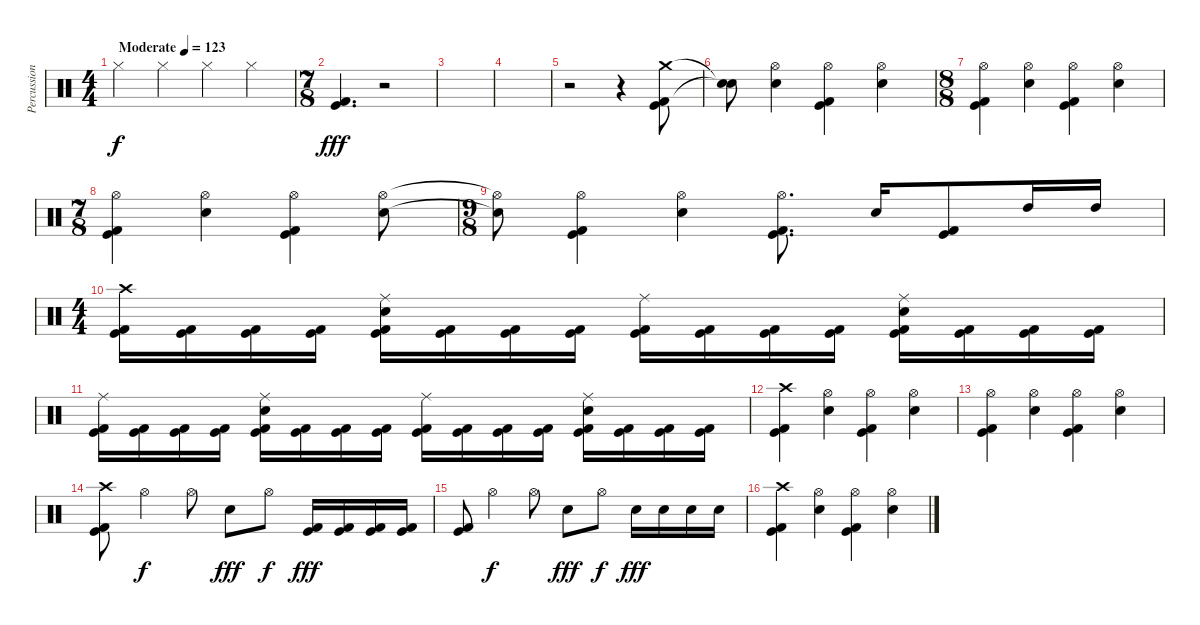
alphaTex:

\track ("Percussion" "Percussion") {instrument percussion}
\staff {score}
\articulation defaults
\ts (4 4)
\tempo (123 "Moderate")
\clef neutral
\ks c "Hi-Hat (closed)".4{dy f} "Hi-Hat (closed)".4 "Hi-Hat (closed)".4 "Hi-Hat (closed)".4
|
\ts (7 8)
("Kick (hit)" "Kick (hit) 2").4{d dy fff} r.2 |
|
|
r.2 r.4 ("Crash medium (hit)" "Kick (hit) 2" "Kick (hit)").8 |
("Snare (hit)"{t} "Snare (hit)"{t}).8 ("Hi-Hat (open)" "Electric Snare (hit)").4 ("Hi-Hat (open)" "Kick (hit) 2" "Kick (hit)").4 ("Hi-Hat (open)" "Electric Snare (hit)").4 |
\ts (8 8)
("Hi-Hat (open)" "Kick (hit) 2" "Kick (hit)").4 ("Hi-Hat (open)" "Electric Snare (hit)").4 ("Hi-Hat (open)" "Kick (hit) 2" "Kick (hit)").4 ("Hi-Hat (open)" "Electric Snare (hit)").4 |
\ts (7 8)
("Hi-Hat (open)" "Kick (hit) 2" "Kick (hit)").4 ("Hi-Hat (open)" "Electric Snare (hit)").4 ("Hi-Hat (open)" "Kick (hit) 2" "Kick (hit)").4 ("Hi-Hat (open)" "Electric Snare (hit)").8 |
\ts (9 8)
("Hi-Hat (open)"{t} "Electric Snare (hit)"{t}).8 ("Hi-Hat (open)" "Kick (hit) 2" "Kick (hit)").4 ("Hi-Hat (open)" "Electric Snare (hit)").4 ("Hi-Hat (open)" "Kick (hit) 2" "Kick (hit)").8{d} "Electric Snare (hit)".16 ("Kick (hit)" "Kick (hit) 2").8 "High Tom (hit)".16 "High Tom (hit)".16 |
\ts (4 4)
("Crash high (hit)" "Kick (hit) 2" "Kick (hit)").16 ("Kick (hit) 2" "Kick (hit)").16 ("Kick (hit) 2" "Kick (hit)").16 ("Kick (hit) 2" "Kick (hit)").16 ("Ride (middle)" "Electric Snare (hit)" "Kick (hit) 2" "Kick (hit)").16 ("Kick (hit) 2" "Kick (hit)").16 ("Kick (hit) 2" "Kick (hit)").16 ("Kick (hit) 2" "Kick (hit)").16 ("Ride (middle)" "Kick (hit) 2" "Kick (hit)").16 ("Kick (hit) 2" "Kick (hit)").16 ("Kick (hit) 2" "Kick (hit)").16 ("Kick (hit) 2" "Kick (hit)").16 ("Ride (middle)" "Electric Snare (hit)" "Kick (hit) 2" "Kick (hit)").16 ("Kick (hit) 2" "Kick (hit)").16 ("Kick (hit) 2" "Kick (hit)").16 ("Kick (hit) 2" "Kick (hit)").16 |
("Ride (middle)" "Kick (hit) 2" "Kick (hit)").16 ("Kick (hit) 2" "Kick (hit)").16 ("Kick (hit) 2" "Kick (hit)").16 ("Kick (hit) 2" "Kick (hit)").16 ("Ride (middle)" "Electric Snare (hit)" "Kick (hit) 2" "Kick (hit)").16 ("Kick (hit) 2" "Kick (hit)").16 ("Kick (hit) 2" "Kick (hit)").16 ("Kick (hit) 2" "Kick (hit)").16 ("Ride (middle)" "Kick (hit) 2" "Kick (hit)").16 ("Kick (hit) 2" "Kick (hit)").16 ("Kick (hit) 2" "Kick (hit)").16 ("Kick (hit) 2" "Kick (hit)").16 ("Ride (middle)" "Electric Snare (hit)" "Kick (hit) 2" "Kick (hit)").16 ("Kick (hit) 2" "Kick (hit)").16 ("Kick (hit) 2" "Kick (hit)").16 ("Kick (hit) 2" "Kick (hit)").16 |
("Crash high (hit)" "Kick (hit) 2" "Kick (hit)").4 ("Hi-Hat (open)" "Electric Snare (hit)").4 ("Hi-Hat (open)" "Kick (hit) 2" "Kick (hit)").4 ("Hi-Hat (open)" "Electric Snare (hit)").4 |
("Hi-Hat (open)" "Kick (hit) 2" "Kick (hit)").4 ("Hi-Hat (open)" "Electric Snare (hit)").4 ("Hi-Hat (open)" "Kick (hit) 2" "Kick (hit)").4 ("Hi-Hat (open)" "Electric Snare (hit)").4 |
("Crash high (hit)" "Kick (hit) 2" "Kick (hit)").8 "Hi-Hat (open)".4{dy f} "Hi-Hat (open)".8 "Electric Snare (hit)".8{dy fff} "Hi-Hat (open)".8{dy f} ("Kick (hit)" "Kick (hit) 2").16{dy fff} ("Kick (hit)" "Kick (hit) 2").16 ("Kick (hit)" "Kick (hit) 2").16 ("Kick (hit)" "Kick (hit) 2").16 |
("Kick (hit) 2" "Kick (hit)").8 "Hi-Hat (open)".4{dy f} "Hi-Hat (open)".8 "Electric Snare (hit)".8{dy fff} "Hi-Hat (open)".8{dy f} "Electric Snare (hit)".16{dy fff} "Electric Snare (hit)".16 "Electric Snare (hit)".16 "Electric Snare (hit)".16 |
("Crash high (hit)" "Kick (hit) 2" "Kick (hit)").4 ("Hi-Hat (open)" "Electric Snare (hit)").4 ("Hi-Hat (open)" "Kick (hit) 2" "Kick (hit)").4 ("Hi-Hat (open)" "Electric Snare (hit)").4
